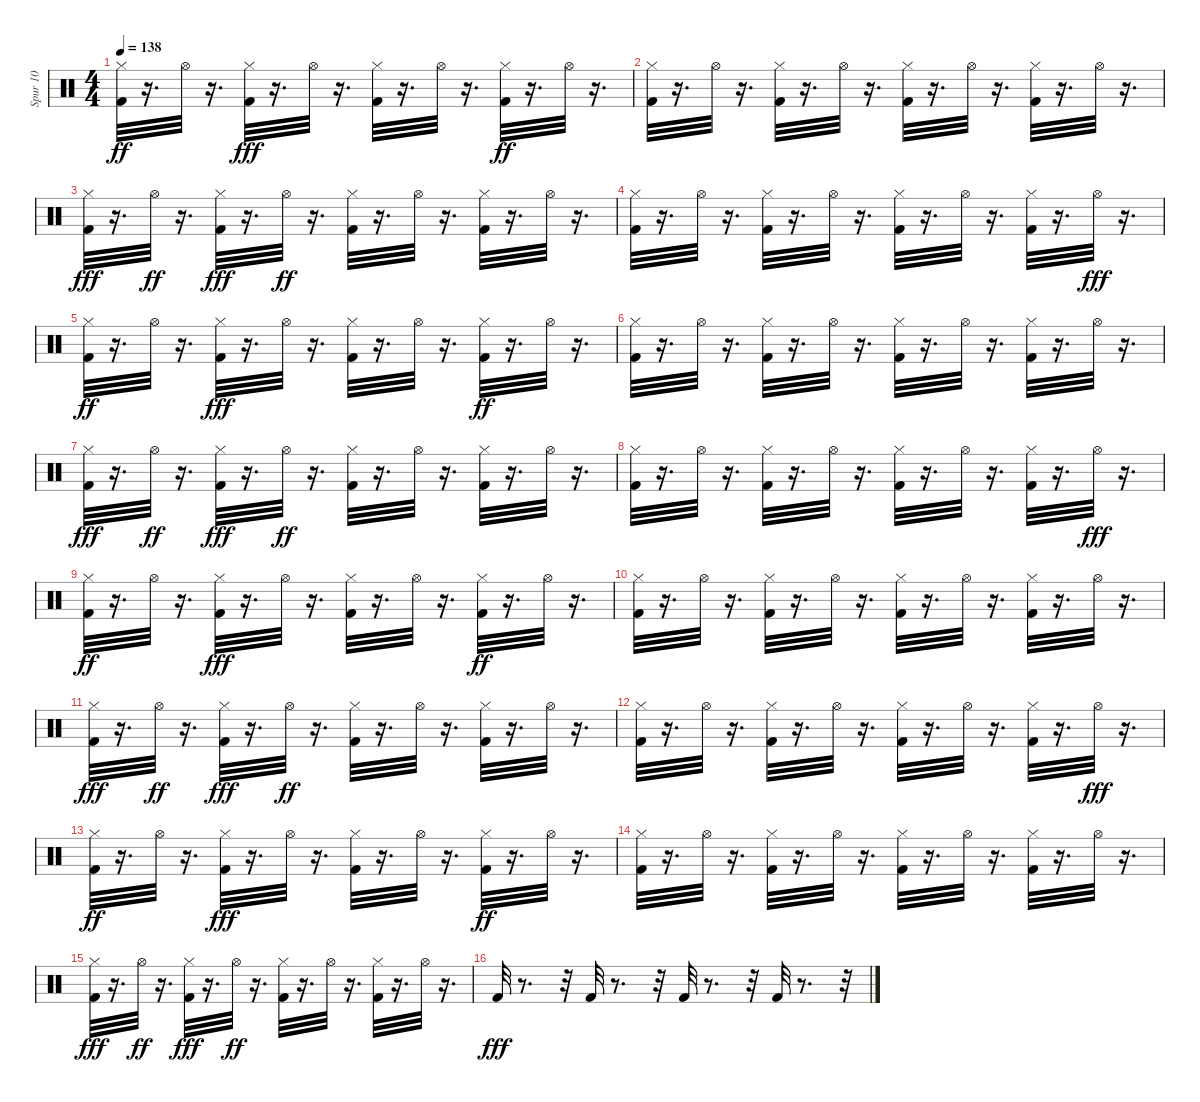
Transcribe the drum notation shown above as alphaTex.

\track ("Spur 10" "Spur 10") {instrument percussion}
\staff {score}
\articulation defaults
\ts (4 4)
\tempo 138
\clef neutral
\ks c
("Kick (hit) 2" "Hi-Hat (closed)").32{dy ff} r.16{d} "Hi-Hat (open)".32 r.16{d} ("Kick (hit) 2" "Hi-Hat (closed)").32{dy fff} r.16{d} "Hi-Hat (open)".32 r.16{d} ("Kick (hit) 2" "Hi-Hat (closed)").32 r.16{d} "Hi-Hat (open)".32 r.16{d} ("Kick (hit) 2" "Hi-Hat (closed)").32{dy ff} r.16{d} "Hi-Hat (open)".32 r.16{d} |
("Kick (hit) 2" "Hi-Hat (closed)").32 r.16{d} "Hi-Hat (open)".32 r.16{d} ("Kick (hit) 2" "Hi-Hat (closed)").32 r.16{d} "Hi-Hat (open)".32 r.16{d} ("Kick (hit) 2" "Hi-Hat (closed)").32 r.16{d} "Hi-Hat (open)".32 r.16{d} ("Kick (hit) 2" "Hi-Hat (closed)").32 r.16{d} "Hi-Hat (open)".32 r.16{d} |
("Kick (hit) 2" "Hi-Hat (closed)").32{dy fff} r.16{d} "Hi-Hat (open)".32{dy ff} r.16{d} ("Kick (hit) 2" "Hi-Hat (closed)").32{dy fff} r.16{d} "Hi-Hat (open)".32{dy ff} r.16{d} ("Kick (hit) 2" "Hi-Hat (closed)").32 r.16{d} "Hi-Hat (open)".32 r.16{d} ("Kick (hit) 2" "Hi-Hat (closed)").32 r.16{d} "Hi-Hat (open)".32 r.16{d} |
("Kick (hit) 2" "Hi-Hat (closed)").32 r.16{d} "Hi-Hat (open)".32 r.16{d} ("Kick (hit) 2" "Hi-Hat (closed)").32 r.16{d} "Hi-Hat (open)".32 r.16{d} ("Kick (hit) 2" "Hi-Hat (closed)").32 r.16{d} "Hi-Hat (open)".32 r.16{d} ("Kick (hit) 2" "Hi-Hat (closed)").32 r.16{d} "Hi-Hat (open)".32{dy fff} r.16{d} |
("Kick (hit) 2" "Hi-Hat (closed)").32{dy ff} r.16{d} "Hi-Hat (open)".32 r.16{d} ("Kick (hit) 2" "Hi-Hat (closed)").32{dy fff} r.16{d} "Hi-Hat (open)".32 r.16{d} ("Kick (hit) 2" "Hi-Hat (closed)").32 r.16{d} "Hi-Hat (open)".32 r.16{d} ("Kick (hit) 2" "Hi-Hat (closed)").32{dy ff} r.16{d} "Hi-Hat (open)".32 r.16{d} |
("Kick (hit) 2" "Hi-Hat (closed)").32 r.16{d} "Hi-Hat (open)".32 r.16{d} ("Kick (hit) 2" "Hi-Hat (closed)").32 r.16{d} "Hi-Hat (open)".32 r.16{d} ("Kick (hit) 2" "Hi-Hat (closed)").32 r.16{d} "Hi-Hat (open)".32 r.16{d} ("Kick (hit) 2" "Hi-Hat (closed)").32 r.16{d} "Hi-Hat (open)".32 r.16{d} |
("Kick (hit) 2" "Hi-Hat (closed)").32{dy fff} r.16{d} "Hi-Hat (open)".32{dy ff} r.16{d} ("Kick (hit) 2" "Hi-Hat (closed)").32{dy fff} r.16{d} "Hi-Hat (open)".32{dy ff} r.16{d} ("Kick (hit) 2" "Hi-Hat (closed)").32 r.16{d} "Hi-Hat (open)".32 r.16{d} ("Kick (hit) 2" "Hi-Hat (closed)").32 r.16{d} "Hi-Hat (open)".32 r.16{d} |
("Kick (hit) 2" "Hi-Hat (closed)").32 r.16{d} "Hi-Hat (open)".32 r.16{d} ("Kick (hit) 2" "Hi-Hat (closed)").32 r.16{d} "Hi-Hat (open)".32 r.16{d} ("Kick (hit) 2" "Hi-Hat (closed)").32 r.16{d} "Hi-Hat (open)".32 r.16{d} ("Kick (hit) 2" "Hi-Hat (closed)").32 r.16{d} "Hi-Hat (open)".32{dy fff} r.16{d} |
("Kick (hit) 2" "Hi-Hat (closed)").32{dy ff} r.16{d} "Hi-Hat (open)".32 r.16{d} ("Kick (hit) 2" "Hi-Hat (closed)").32{dy fff} r.16{d} "Hi-Hat (open)".32 r.16{d} ("Kick (hit) 2" "Hi-Hat (closed)").32 r.16{d} "Hi-Hat (open)".32 r.16{d} ("Kick (hit) 2" "Hi-Hat (closed)").32{dy ff} r.16{d} "Hi-Hat (open)".32 r.16{d} |
("Kick (hit) 2" "Hi-Hat (closed)").32 r.16{d} "Hi-Hat (open)".32 r.16{d} ("Kick (hit) 2" "Hi-Hat (closed)").32 r.16{d} "Hi-Hat (open)".32 r.16{d} ("Kick (hit) 2" "Hi-Hat (closed)").32 r.16{d} "Hi-Hat (open)".32 r.16{d} ("Kick (hit) 2" "Hi-Hat (closed)").32 r.16{d} "Hi-Hat (open)".32 r.16{d} |
("Kick (hit) 2" "Hi-Hat (closed)").32{dy fff} r.16{d} "Hi-Hat (open)".32{dy ff} r.16{d} ("Kick (hit) 2" "Hi-Hat (closed)").32{dy fff} r.16{d} "Hi-Hat (open)".32{dy ff} r.16{d} ("Kick (hit) 2" "Hi-Hat (closed)").32 r.16{d} "Hi-Hat (open)".32 r.16{d} ("Kick (hit) 2" "Hi-Hat (closed)").32 r.16{d} "Hi-Hat (open)".32 r.16{d} |
("Kick (hit) 2" "Hi-Hat (closed)").32 r.16{d} "Hi-Hat (open)".32 r.16{d} ("Kick (hit) 2" "Hi-Hat (closed)").32 r.16{d} "Hi-Hat (open)".32 r.16{d} ("Kick (hit) 2" "Hi-Hat (closed)").32 r.16{d} "Hi-Hat (open)".32 r.16{d} ("Kick (hit) 2" "Hi-Hat (closed)").32 r.16{d} "Hi-Hat (open)".32{dy fff} r.16{d} |
("Kick (hit) 2" "Hi-Hat (closed)").32{dy ff} r.16{d} "Hi-Hat (open)".32 r.16{d} ("Kick (hit) 2" "Hi-Hat (closed)").32{dy fff} r.16{d} "Hi-Hat (open)".32 r.16{d} ("Kick (hit) 2" "Hi-Hat (closed)").32 r.16{d} "Hi-Hat (open)".32 r.16{d} ("Kick (hit) 2" "Hi-Hat (closed)").32{dy ff} r.16{d} "Hi-Hat (open)".32 r.16{d} |
("Kick (hit) 2" "Hi-Hat (closed)").32 r.16{d} "Hi-Hat (open)".32 r.16{d} ("Kick (hit) 2" "Hi-Hat (closed)").32 r.16{d} "Hi-Hat (open)".32 r.16{d} ("Kick (hit) 2" "Hi-Hat (closed)").32 r.16{d} "Hi-Hat (open)".32 r.16{d} ("Kick (hit) 2" "Hi-Hat (closed)").32 r.16{d} "Hi-Hat (open)".32 r.16{d} |
("Kick (hit) 2" "Hi-Hat (closed)").32{dy fff} r.16{d} "Hi-Hat (open)".32{dy ff} r.16{d} ("Kick (hit) 2" "Hi-Hat (closed)").32{dy fff} r.16{d} "Hi-Hat (open)".32{dy ff} r.16{d} ("Kick (hit) 2" "Hi-Hat (closed)").32 r.16{d} "Hi-Hat (open)".32 r.16{d} ("Kick (hit) 2" "Hi-Hat (closed)").32 r.16{d} "Hi-Hat (open)".32 r.16{d} |
"Kick (hit) 2".32{dy fff} r.8{d} r.32 "Kick (hit) 2".32 r.8{d} r.32 "Kick (hit) 2".32 r.8{d} r.32 "Kick (hit) 2".32 r.8{d} r.32
